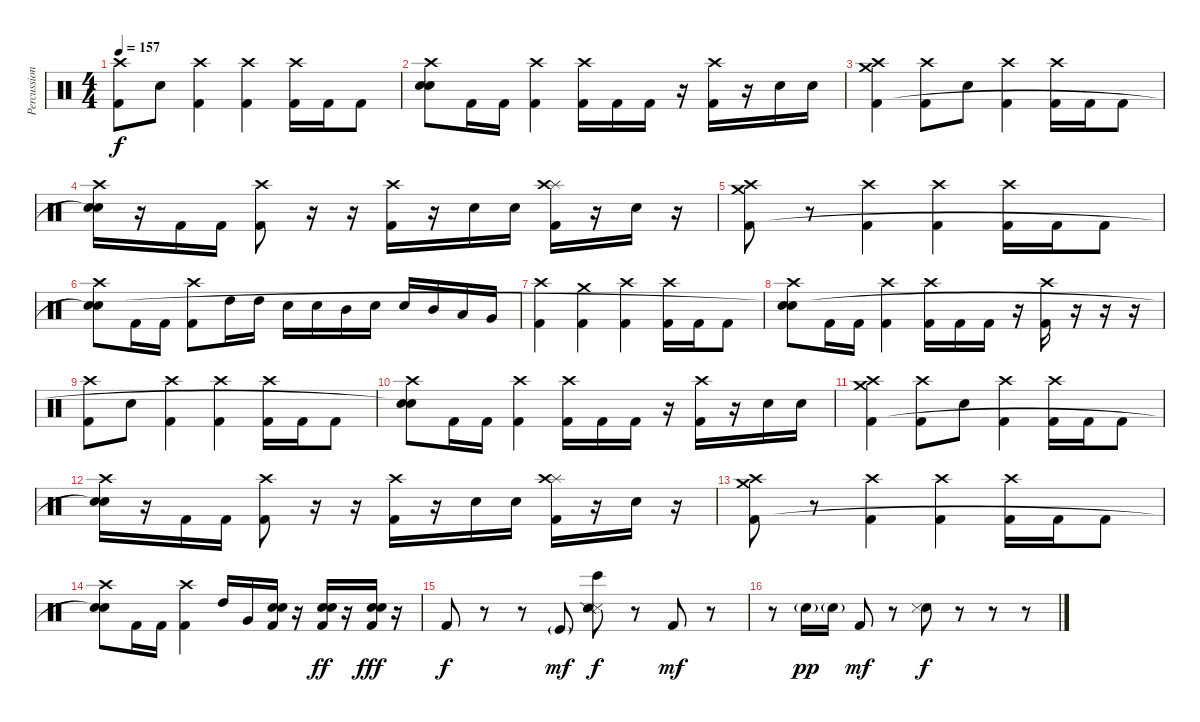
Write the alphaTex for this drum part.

\track ("Percussions" "Percussion") {instrument percussion}
\staff {score}
\articulation defaults
\ts (4 4)
\tempo 157
\clef neutral
\ks c
("Crash high (hit)" "Kick (hit) 2").8{dy f} "Electric Snare (hit)".8 ("Crash high (hit)" "Kick (hit) 2").4 ("Crash high (hit)" "Kick (hit) 2").4 ("Crash high (hit)" "Kick (hit) 2").16 "Kick (hit) 2".16 "Kick (hit) 2".8 |
("Crash high (hit)" "Electric Snare (hit)" "Snare (hit)"{t}).8 "Kick (hit) 2".16 "Kick (hit) 2".16 ("Crash high (hit)" "Kick (hit) 2").4 ("Crash high (hit)" "Kick (hit) 2").16 "Kick (hit) 2".16 "Kick (hit) 2".16 r.16 ("Crash high (hit)" "Kick (hit) 2").16 r.16 "Electric Snare (hit)".16 "Electric Snare (hit)".16 |
("Crash medium (hit)" "Crash high (hit)" "Kick (hit) 2").4 ("Crash high (hit)" "Kick (hit) 2").8 "Electric Snare (hit)".8 ("Crash high (hit)" "Kick (hit) 2").4 ("Crash high (hit)" "Kick (hit) 2").16 "Kick (hit) 2".16 "Kick (hit) 2".8 |
("Crash high (hit)" "Electric Snare (hit)" "Snare (hit)"{t}).16 r.16 "Kick (hit) 2".16 "Kick (hit) 2".16 ("Crash high (hit)" "Kick (hit) 2").8 r.16 r.16 ("Crash high (hit)" "Kick (hit) 2").16 r.16 "Electric Snare (hit)".16 "Electric Snare (hit)".16 ("Splash (hit)" "Crash high (hit)" "Kick (hit) 2").16 r.16 "Electric Snare (hit)".16 r.16 |
("Crash medium (hit)" "Crash high (hit)" "Kick (hit) 2").8 r.8 ("Crash high (hit)" "Kick (hit) 2").4 ("Crash high (hit)" "Kick (hit) 2").4 ("Crash high (hit)" "Kick (hit) 2").16 "Kick (hit) 2".16 "Kick (hit) 2".8 |
("Crash high (hit)" "Electric Snare (hit)" "Snare (hit)"{t}).8 "Kick (hit) 2".16 "Kick (hit) 2".16 ("Crash high (hit)" "Kick (hit) 2").8 "High Tom (hit)".16 "High Tom (hit)".16 "Electric Snare (hit)".16 "Electric Snare (hit)".16 "Mid Tom (hit)".16 "Electric Snare (hit)".16 "Electric Snare (hit)".16 "Mid Tom (hit)".16 "Low Tom (hit)".16 "Very Low Tom (hit)".16 |
("Crash high (hit)" "Kick (hit) 2").4 ("Crash medium (hit)" "Kick (hit) 2").4 ("Crash high (hit)" "Kick (hit) 2").4 ("Crash high (hit)" "Kick (hit) 2").16 "Kick (hit) 2".16 "Kick (hit) 2".8 |
("Crash high (hit)" "Electric Snare (hit)" "Snare (hit)"{t}).8 "Kick (hit) 2".16 "Kick (hit) 2".16 ("Crash high (hit)" "Kick (hit) 2").4 ("Crash high (hit)" "Kick (hit) 2").16 "Kick (hit) 2".16 "Kick (hit) 2".16 r.16 ("Crash high (hit)" "Kick (hit) 2").16 r.16 r.16 r.16 |
("Crash high (hit)" "Kick (hit) 2").8 "Electric Snare (hit)".8 ("Crash high (hit)" "Kick (hit) 2").4 ("Crash high (hit)" "Kick (hit) 2").4 ("Crash high (hit)" "Kick (hit) 2").16 "Kick (hit) 2".16 "Kick (hit) 2".8 |
("Crash high (hit)" "Electric Snare (hit)" "Snare (hit)"{t}).8 "Kick (hit) 2".16 "Kick (hit) 2".16 ("Crash high (hit)" "Kick (hit) 2").4 ("Crash high (hit)" "Kick (hit) 2").16 "Kick (hit) 2".16 "Kick (hit) 2".16 r.16 ("Crash high (hit)" "Kick (hit) 2").16 r.16 "Electric Snare (hit)".16 "Electric Snare (hit)".16 |
("Crash medium (hit)" "Crash high (hit)" "Kick (hit) 2").4 ("Crash high (hit)" "Kick (hit) 2").8 "Electric Snare (hit)".8 ("Crash high (hit)" "Kick (hit) 2").4 ("Crash high (hit)" "Kick (hit) 2").16 "Kick (hit) 2".16 "Kick (hit) 2".8 |
("Crash high (hit)" "Electric Snare (hit)" "Snare (hit)"{t}).16 r.16 "Kick (hit) 2".16 "Kick (hit) 2".16 ("Crash high (hit)" "Kick (hit) 2").8 r.16 r.16 ("Crash high (hit)" "Kick (hit) 2").16 r.16 "Electric Snare (hit)".16 "Electric Snare (hit)".16 ("Splash (hit)" "Crash high (hit)" "Kick (hit) 2").16 r.16 "Electric Snare (hit)".16 r.16 |
("Crash medium (hit)" "Crash high (hit)" "Kick (hit) 2").8 r.8 ("Crash high (hit)" "Kick (hit) 2").4 ("Crash high (hit)" "Kick (hit) 2").4 ("Crash high (hit)" "Kick (hit) 2").16 "Kick (hit) 2".16 "Kick (hit) 2".8 |
("Crash high (hit)" "Electric Snare (hit)" "Snare (hit)"{t}).8 "Kick (hit) 2".16 "Kick (hit) 2".16 ("Crash high (hit)" "Kick (hit) 2").4 "High Tom (hit)".16 "Very Low Tom (hit)".16 ("Snare (hit) 2" "Electric Snare (hit)" "Kick (hit) 2").16 r.16 ("Snare (hit) 2" "Electric Snare (hit)" "Kick (hit) 2").16{dy ff} r.16 ("Snare (hit) 2" "Electric Snare (hit)" "Kick (hit) 2").16{dy fff} r.16 |
"Kick (hit) 2".8{dy f} r.8 r.8 "Kick (hit)"{g}.8{dy mf} ("Bongo High (hit)" "Metronome (hit)" "Snare (side stick) 2").8{dy f} r.8 "Kick (hit) 2".8{dy mf} r.8 |
r.8 "Electric Snare (hit)"{g}.16{dy pp} "Electric Snare (hit)"{g}.16 "Kick (hit) 2".8{dy mf} r.8 ("Snare (hit) 2" "Snare (side stick) 3").8{dy f} r.8 r.8 r.8
